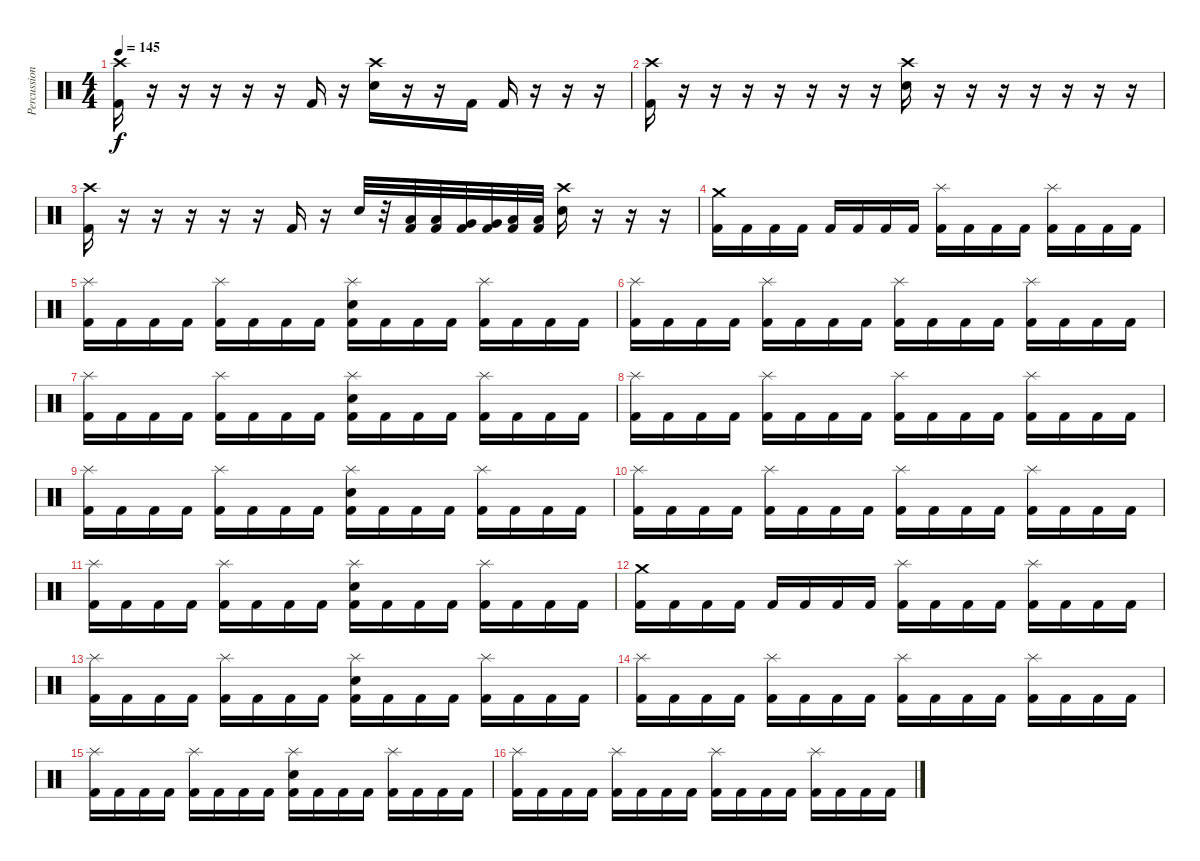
\track ("Percussion" "Percussion") {instrument percussion}
\staff {score}
\articulation defaults
\ts (4 4)
\tempo 145
\clef neutral
\ks c
("Crash high (hit)" "Kick (hit) 2").16{dy f} r.16 r.16 r.16 r.16 r.16 "Kick (hit) 2".16 r.16 ("Crash high (hit)" "Electric Snare (hit)").16 r.16 r.16 "Kick (hit) 2".16 "Kick (hit) 2".16 r.16 r.16 r.16 |
("Crash high (hit)" "Kick (hit) 2").16 r.16 r.16 r.16 r.16 r.16 r.16 r.16 ("Crash high (hit)" "Electric Snare (hit)").16 r.16 r.16 r.16 r.16 r.16 r.16 r.16 |
("Crash high (hit)" "Kick (hit) 2").16 r.16 r.16 r.16 r.16 r.16 "Kick (hit) 2".16 r.16 "Electric Snare (hit)".32 r.32 ("Low Tom (hit)" "Kick (hit) 2").32 ("Low Tom (hit)" "Kick (hit) 2").32 ("Very Low Tom (hit)" "Kick (hit) 2").32 ("Very Low Tom (hit)" "Kick (hit) 2").32 ("Low Floor Tom (hit)" "Kick (hit) 2").32 ("Low Floor Tom (hit)" "Kick (hit) 2").32 ("Crash high (hit)" "Electric Snare (hit)").16 r.16 r.16 r.16 |
("Crash medium (hit)" "Kick (hit) 2").16 "Kick (hit) 2".16 "Kick (hit) 2".16 "Kick (hit) 2".16 "Kick (hit) 2".16 "Kick (hit) 2".16 "Kick (hit) 2".16 "Kick (hit) 2".16 ("Splash (hit)" "Kick (hit) 2").16 "Kick (hit) 2".16 "Kick (hit) 2".16 "Kick (hit) 2".16 ("Splash (hit)" "Kick (hit) 2").16 "Kick (hit) 2".16 "Kick (hit) 2".16 "Kick (hit) 2".16 |
("Splash (hit)" "Kick (hit) 2").16 "Kick (hit) 2".16 "Kick (hit) 2".16 "Kick (hit) 2".16 ("Splash (hit)" "Kick (hit) 2").16 "Kick (hit) 2".16 "Kick (hit) 2".16 "Kick (hit) 2".16 ("Splash (hit)" "Electric Snare (hit)" "Kick (hit) 2").16 "Kick (hit) 2".16 "Kick (hit) 2".16 "Kick (hit) 2".16 ("Splash (hit)" "Kick (hit) 2").16 "Kick (hit) 2".16 "Kick (hit) 2".16 "Kick (hit) 2".16 |
("Splash (hit)" "Kick (hit) 2").16 "Kick (hit) 2".16 "Kick (hit) 2".16 "Kick (hit) 2".16 ("Splash (hit)" "Kick (hit) 2").16 "Kick (hit) 2".16 "Kick (hit) 2".16 "Kick (hit) 2".16 ("Splash (hit)" "Kick (hit) 2").16 "Kick (hit) 2".16 "Kick (hit) 2".16 "Kick (hit) 2".16 ("Splash (hit)" "Kick (hit) 2").16 "Kick (hit) 2".16 "Kick (hit) 2".16 "Kick (hit) 2".16 |
("Splash (hit)" "Kick (hit) 2").16 "Kick (hit) 2".16 "Kick (hit) 2".16 "Kick (hit) 2".16 ("Splash (hit)" "Kick (hit) 2").16 "Kick (hit) 2".16 "Kick (hit) 2".16 "Kick (hit) 2".16 ("Splash (hit)" "Electric Snare (hit)" "Kick (hit) 2").16 "Kick (hit) 2".16 "Kick (hit) 2".16 "Kick (hit) 2".16 ("Splash (hit)" "Kick (hit) 2").16 "Kick (hit) 2".16 "Kick (hit) 2".16 "Kick (hit) 2".16 |
("Splash (hit)" "Kick (hit) 2").16 "Kick (hit) 2".16 "Kick (hit) 2".16 "Kick (hit) 2".16 ("Splash (hit)" "Kick (hit) 2").16 "Kick (hit) 2".16 "Kick (hit) 2".16 "Kick (hit) 2".16 ("Splash (hit)" "Kick (hit) 2").16 "Kick (hit) 2".16 "Kick (hit) 2".16 "Kick (hit) 2".16 ("Splash (hit)" "Kick (hit) 2").16 "Kick (hit) 2".16 "Kick (hit) 2".16 "Kick (hit) 2".16 |
("Splash (hit)" "Kick (hit) 2").16 "Kick (hit) 2".16 "Kick (hit) 2".16 "Kick (hit) 2".16 ("Splash (hit)" "Kick (hit) 2").16 "Kick (hit) 2".16 "Kick (hit) 2".16 "Kick (hit) 2".16 ("Splash (hit)" "Electric Snare (hit)" "Kick (hit) 2").16 "Kick (hit) 2".16 "Kick (hit) 2".16 "Kick (hit) 2".16 ("Splash (hit)" "Kick (hit) 2").16 "Kick (hit) 2".16 "Kick (hit) 2".16 "Kick (hit) 2".16 |
("Splash (hit)" "Kick (hit) 2").16 "Kick (hit) 2".16 "Kick (hit) 2".16 "Kick (hit) 2".16 ("Splash (hit)" "Kick (hit) 2").16 "Kick (hit) 2".16 "Kick (hit) 2".16 "Kick (hit) 2".16 ("Splash (hit)" "Kick (hit) 2").16 "Kick (hit) 2".16 "Kick (hit) 2".16 "Kick (hit) 2".16 ("Splash (hit)" "Kick (hit) 2").16 "Kick (hit) 2".16 "Kick (hit) 2".16 "Kick (hit) 2".16 |
("Splash (hit)" "Kick (hit) 2").16 "Kick (hit) 2".16 "Kick (hit) 2".16 "Kick (hit) 2".16 ("Splash (hit)" "Kick (hit) 2").16 "Kick (hit) 2".16 "Kick (hit) 2".16 "Kick (hit) 2".16 ("Splash (hit)" "Electric Snare (hit)" "Kick (hit) 2").16 "Kick (hit) 2".16 "Kick (hit) 2".16 "Kick (hit) 2".16 ("Splash (hit)" "Kick (hit) 2").16 "Kick (hit) 2".16 "Kick (hit) 2".16 "Kick (hit) 2".16 |
("Crash medium (hit)" "Kick (hit) 2").16 "Kick (hit) 2".16 "Kick (hit) 2".16 "Kick (hit) 2".16 "Kick (hit) 2".16 "Kick (hit) 2".16 "Kick (hit) 2".16 "Kick (hit) 2".16 ("Splash (hit)" "Kick (hit) 2").16 "Kick (hit) 2".16 "Kick (hit) 2".16 "Kick (hit) 2".16 ("Splash (hit)" "Kick (hit) 2").16 "Kick (hit) 2".16 "Kick (hit) 2".16 "Kick (hit) 2".16 |
("Splash (hit)" "Kick (hit) 2").16 "Kick (hit) 2".16 "Kick (hit) 2".16 "Kick (hit) 2".16 ("Splash (hit)" "Kick (hit) 2").16 "Kick (hit) 2".16 "Kick (hit) 2".16 "Kick (hit) 2".16 ("Splash (hit)" "Electric Snare (hit)" "Kick (hit) 2").16 "Kick (hit) 2".16 "Kick (hit) 2".16 "Kick (hit) 2".16 ("Splash (hit)" "Kick (hit) 2").16 "Kick (hit) 2".16 "Kick (hit) 2".16 "Kick (hit) 2".16 |
("Splash (hit)" "Kick (hit) 2").16 "Kick (hit) 2".16 "Kick (hit) 2".16 "Kick (hit) 2".16 ("Splash (hit)" "Kick (hit) 2").16 "Kick (hit) 2".16 "Kick (hit) 2".16 "Kick (hit) 2".16 ("Splash (hit)" "Kick (hit) 2").16 "Kick (hit) 2".16 "Kick (hit) 2".16 "Kick (hit) 2".16 ("Splash (hit)" "Kick (hit) 2").16 "Kick (hit) 2".16 "Kick (hit) 2".16 "Kick (hit) 2".16 |
("Splash (hit)" "Kick (hit) 2").16 "Kick (hit) 2".16 "Kick (hit) 2".16 "Kick (hit) 2".16 ("Splash (hit)" "Kick (hit) 2").16 "Kick (hit) 2".16 "Kick (hit) 2".16 "Kick (hit) 2".16 ("Splash (hit)" "Electric Snare (hit)" "Kick (hit) 2").16 "Kick (hit) 2".16 "Kick (hit) 2".16 "Kick (hit) 2".16 ("Splash (hit)" "Kick (hit) 2").16 "Kick (hit) 2".16 "Kick (hit) 2".16 "Kick (hit) 2".16 |
("Splash (hit)" "Kick (hit) 2").16 "Kick (hit) 2".16 "Kick (hit) 2".16 "Kick (hit) 2".16 ("Splash (hit)" "Kick (hit) 2").16 "Kick (hit) 2".16 "Kick (hit) 2".16 "Kick (hit) 2".16 ("Splash (hit)" "Kick (hit) 2").16 "Kick (hit) 2".16 "Kick (hit) 2".16 "Kick (hit) 2".16 ("Splash (hit)" "Kick (hit) 2").16 "Kick (hit) 2".16 "Kick (hit) 2".16 "Kick (hit) 2".16
